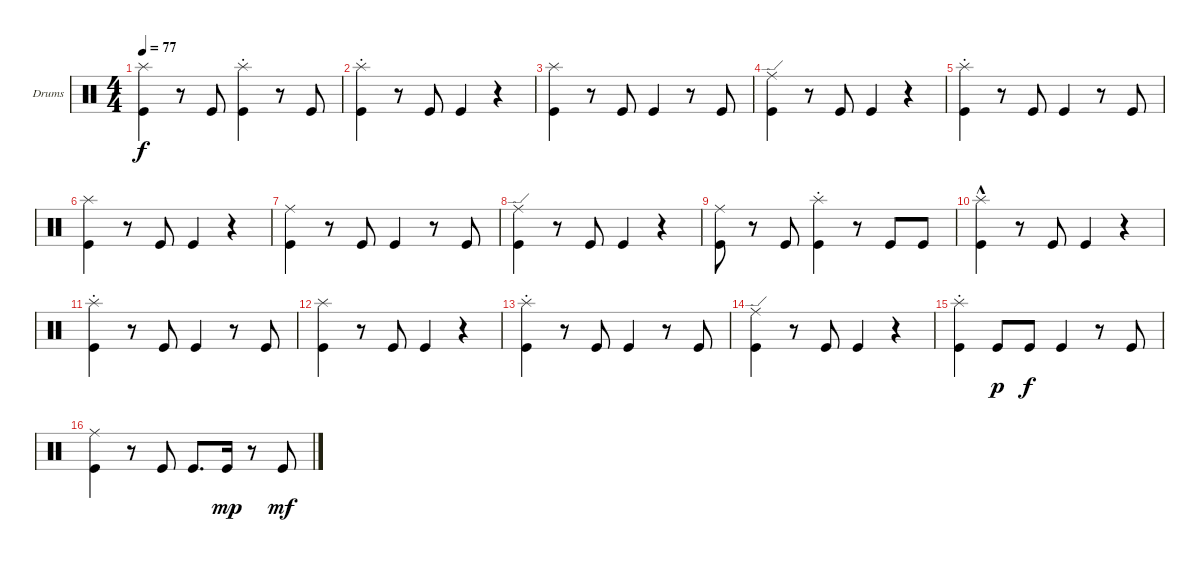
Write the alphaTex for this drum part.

\bracketExtendMode groupsimilarinstruments
\firstSystemTrackNameOrientation horizontal
\otherSystemsTrackNameOrientation horizontal
\track ("Ударники Григорий Гурьянов" "Drums") {instrument percussion}
\staff {score}
\articulation defaults
\ts (4 4)
\tempo 77
\clef neutral
\ks c
("Kick (hit)" "Splash (hit)").4{dy f} r.8 "Kick (hit)".8 ("Kick (hit)" "Splash (hit)"{st}).4 r.8 "Kick (hit)".8 |
("Kick (hit)" "Splash (hit)"{st}).4 r.8 "Kick (hit)".8 "Kick (hit)".4 r.4 |
("Kick (hit)" "Splash (hit)").4 r.8 "Kick (hit)".8 "Kick (hit)".4 r.8 "Kick (hit)".8 |
("Kick (hit)" "Ride (edge)").4 r.8 "Kick (hit)".8 "Kick (hit)".4 r.4 |
("Kick (hit)" "Splash (hit)"{st}).4 r.8 "Kick (hit)".8 "Kick (hit)".4 r.8 "Kick (hit)".8 |
("Kick (hit)" "Splash (hit)").4 r.8 "Kick (hit)".8 "Kick (hit)".4 r.4 |
("Kick (hit)" "Ride (middle)").4 r.8 "Kick (hit)".8 "Kick (hit)".4 r.8 "Kick (hit)".8 |
("Kick (hit)" "Ride (edge)").4 r.8 "Kick (hit)".8 "Kick (hit)".4 r.4 |
("Kick (hit)" "Ride (middle)").8 r.8 "Kick (hit)".8 ("Kick (hit)" "Splash (hit)"{st}).4 r.8 "Kick (hit)".8 "Kick (hit)".8 |
("Kick (hit)" "Splash (hit)"{hac}).4 r.8 "Kick (hit)".8 "Kick (hit)".4 r.4 |
("Kick (hit)" "Splash (hit)"{st}).4 r.8 "Kick (hit)".8 "Kick (hit)".4 r.8 "Kick (hit)".8 |
("Kick (hit)" "Splash (hit)").4 r.8 "Kick (hit)".8 "Kick (hit)".4 r.4 |
("Kick (hit)" "Splash (hit)"{st}).4 r.8 "Kick (hit)".8 "Kick (hit)".4 r.8 "Kick (hit)".8 |
("Kick (hit)" "Ride (edge)").4 r.8 "Kick (hit)".8 "Kick (hit)".4 r.4 |
("Kick (hit)" "Splash (hit)"{st}).4 "Kick (hit)".8{dy p} "Kick (hit)".8{dy f} "Kick (hit)".4 r.8 "Kick (hit)".8 |
("Kick (hit)" "Ride (middle)").4 r.8 "Kick (hit)".8 "Kick (hit)".8{d} "Kick (hit)".16{dy mp} r.8 "Kick (hit)".8{dy mf}
